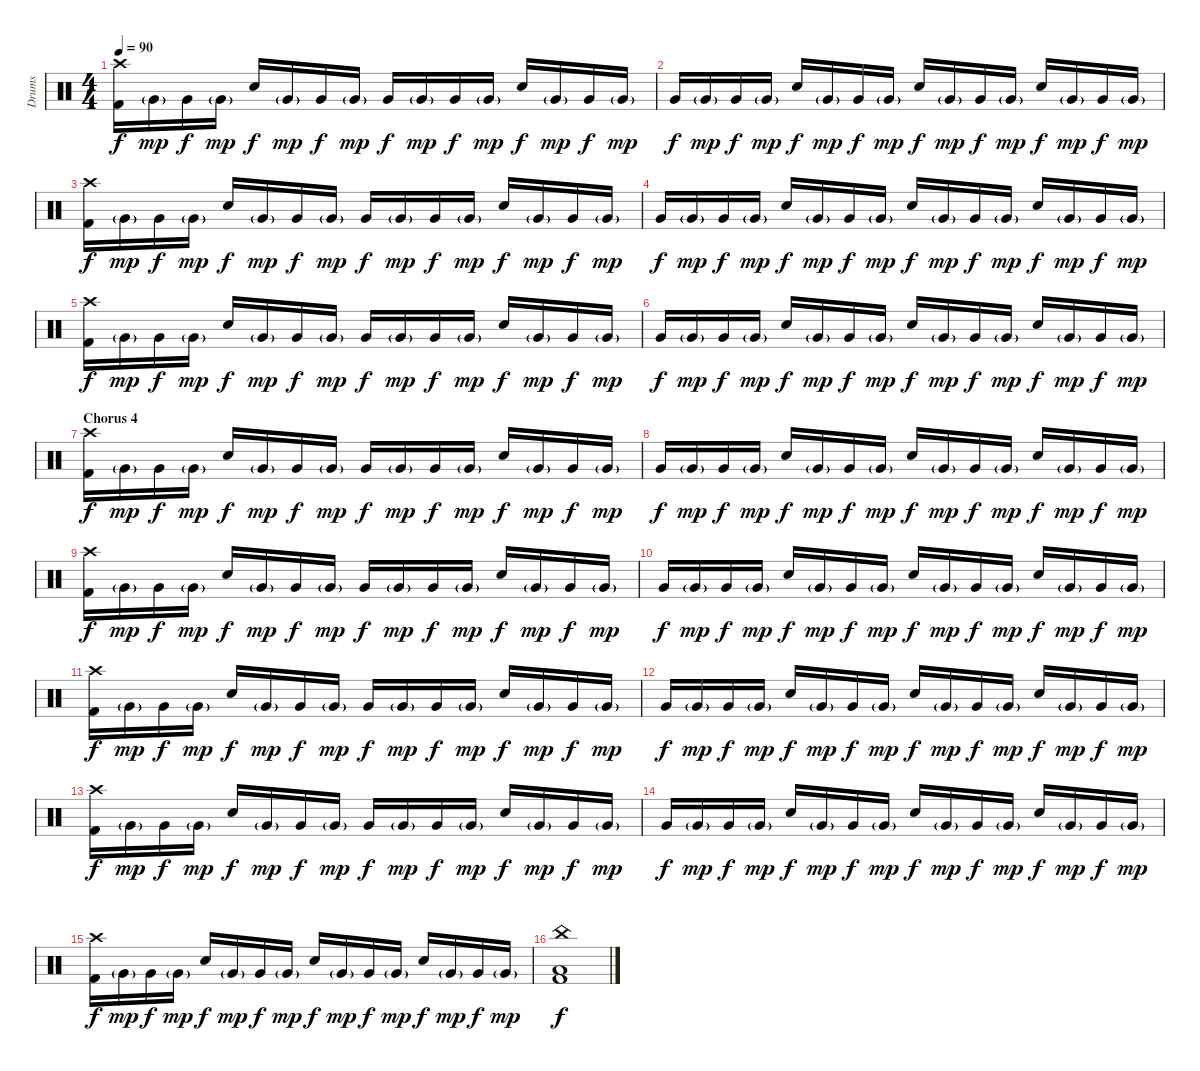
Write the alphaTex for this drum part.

\track ("Drums" "Drums") {instrument percussion}
\staff {score}
\articulation defaults
\ts (4 4)
\tempo 90
\clef neutral
\ks c
("Crash high (hit)" "Kick (hit) 2").16{dy f} "Very Low Tom (hit)"{g}.16{dy mp} "Very Low Tom (hit)".16{dy f} "Very Low Tom (hit)"{g}.16{dy mp} "Snare (hit) 2".16{dy f} "Very Low Tom (hit)"{g}.16{dy mp} "Very Low Tom (hit)".16{dy f} "Very Low Tom (hit)"{g}.16{dy mp} "Very Low Tom (hit)".16{dy f} "Very Low Tom (hit)"{g}.16{dy mp} "Very Low Tom (hit)".16{dy f} "Very Low Tom (hit)"{g}.16{dy mp} "Snare (hit) 2".16{dy f} "Very Low Tom (hit)"{g}.16{dy mp} "Very Low Tom (hit)".16{dy f} "Very Low Tom (hit)"{g}.16{dy mp} |
"Very Low Tom (hit)".16{dy f} "Very Low Tom (hit)"{g}.16{dy mp} "Very Low Tom (hit)".16{dy f} "Very Low Tom (hit)"{g}.16{dy mp} "Snare (hit) 2".16{dy f} "Very Low Tom (hit)"{g}.16{dy mp} "Very Low Tom (hit)".16{dy f} "Very Low Tom (hit)"{g}.16{dy mp} "Snare (hit) 2".16{dy f} "Very Low Tom (hit)"{g}.16{dy mp} "Very Low Tom (hit)".16{dy f} "Very Low Tom (hit)"{g}.16{dy mp} "Snare (hit) 2".16{dy f} "Very Low Tom (hit)"{g}.16{dy mp} "Very Low Tom (hit)".16{dy f} "Very Low Tom (hit)"{g}.16{dy mp} |
("Crash high (hit)" "Kick (hit) 2").16{dy f} "Very Low Tom (hit)"{g}.16{dy mp} "Very Low Tom (hit)".16{dy f} "Very Low Tom (hit)"{g}.16{dy mp} "Snare (hit) 2".16{dy f} "Very Low Tom (hit)"{g}.16{dy mp} "Very Low Tom (hit)".16{dy f} "Very Low Tom (hit)"{g}.16{dy mp} "Very Low Tom (hit)".16{dy f} "Very Low Tom (hit)"{g}.16{dy mp} "Very Low Tom (hit)".16{dy f} "Very Low Tom (hit)"{g}.16{dy mp} "Snare (hit) 2".16{dy f} "Very Low Tom (hit)"{g}.16{dy mp} "Very Low Tom (hit)".16{dy f} "Very Low Tom (hit)"{g}.16{dy mp} |
"Very Low Tom (hit)".16{dy f} "Very Low Tom (hit)"{g}.16{dy mp} "Very Low Tom (hit)".16{dy f} "Very Low Tom (hit)"{g}.16{dy mp} "Snare (hit) 2".16{dy f} "Very Low Tom (hit)"{g}.16{dy mp} "Very Low Tom (hit)".16{dy f} "Very Low Tom (hit)"{g}.16{dy mp} "Snare (hit) 2".16{dy f} "Very Low Tom (hit)"{g}.16{dy mp} "Very Low Tom (hit)".16{dy f} "Very Low Tom (hit)"{g}.16{dy mp} "Snare (hit) 2".16{dy f} "Very Low Tom (hit)"{g}.16{dy mp} "Very Low Tom (hit)".16{dy f} "Very Low Tom (hit)"{g}.16{dy mp} |
("Crash high (hit)" "Kick (hit) 2").16{dy f} "Very Low Tom (hit)"{g}.16{dy mp} "Very Low Tom (hit)".16{dy f} "Very Low Tom (hit)"{g}.16{dy mp} "Snare (hit) 2".16{dy f} "Very Low Tom (hit)"{g}.16{dy mp} "Very Low Tom (hit)".16{dy f} "Very Low Tom (hit)"{g}.16{dy mp} "Very Low Tom (hit)".16{dy f} "Very Low Tom (hit)"{g}.16{dy mp} "Very Low Tom (hit)".16{dy f} "Very Low Tom (hit)"{g}.16{dy mp} "Snare (hit) 2".16{dy f} "Very Low Tom (hit)"{g}.16{dy mp} "Very Low Tom (hit)".16{dy f} "Very Low Tom (hit)"{g}.16{dy mp} |
"Very Low Tom (hit)".16{dy f} "Very Low Tom (hit)"{g}.16{dy mp} "Very Low Tom (hit)".16{dy f} "Very Low Tom (hit)"{g}.16{dy mp} "Snare (hit) 2".16{dy f} "Very Low Tom (hit)"{g}.16{dy mp} "Very Low Tom (hit)".16{dy f} "Very Low Tom (hit)"{g}.16{dy mp} "Snare (hit) 2".16{dy f} "Very Low Tom (hit)"{g}.16{dy mp} "Very Low Tom (hit)".16{dy f} "Very Low Tom (hit)"{g}.16{dy mp} "Snare (hit) 2".16{dy f} "Very Low Tom (hit)"{g}.16{dy mp} "Very Low Tom (hit)".16{dy f} "Very Low Tom (hit)"{g}.16{dy mp} |
\section ("" "Chorus 4")
("Crash high (hit)" "Kick (hit) 2").16{dy f} "Very Low Tom (hit)"{g}.16{dy mp} "Very Low Tom (hit)".16{dy f} "Very Low Tom (hit)"{g}.16{dy mp} "Snare (hit) 2".16{dy f} "Very Low Tom (hit)"{g}.16{dy mp} "Very Low Tom (hit)".16{dy f} "Very Low Tom (hit)"{g}.16{dy mp} "Very Low Tom (hit)".16{dy f} "Very Low Tom (hit)"{g}.16{dy mp} "Very Low Tom (hit)".16{dy f} "Very Low Tom (hit)"{g}.16{dy mp} "Snare (hit) 2".16{dy f} "Very Low Tom (hit)"{g}.16{dy mp} "Very Low Tom (hit)".16{dy f} "Very Low Tom (hit)"{g}.16{dy mp} |
"Very Low Tom (hit)".16{dy f} "Very Low Tom (hit)"{g}.16{dy mp} "Very Low Tom (hit)".16{dy f} "Very Low Tom (hit)"{g}.16{dy mp} "Snare (hit) 2".16{dy f} "Very Low Tom (hit)"{g}.16{dy mp} "Very Low Tom (hit)".16{dy f} "Very Low Tom (hit)"{g}.16{dy mp} "Snare (hit) 2".16{dy f} "Very Low Tom (hit)"{g}.16{dy mp} "Very Low Tom (hit)".16{dy f} "Very Low Tom (hit)"{g}.16{dy mp} "Snare (hit) 2".16{dy f} "Very Low Tom (hit)"{g}.16{dy mp} "Very Low Tom (hit)".16{dy f} "Very Low Tom (hit)"{g}.16{dy mp} |
("Crash high (hit)" "Kick (hit) 2").16{dy f} "Very Low Tom (hit)"{g}.16{dy mp} "Very Low Tom (hit)".16{dy f} "Very Low Tom (hit)"{g}.16{dy mp} "Snare (hit) 2".16{dy f} "Very Low Tom (hit)"{g}.16{dy mp} "Very Low Tom (hit)".16{dy f} "Very Low Tom (hit)"{g}.16{dy mp} "Very Low Tom (hit)".16{dy f} "Very Low Tom (hit)"{g}.16{dy mp} "Very Low Tom (hit)".16{dy f} "Very Low Tom (hit)"{g}.16{dy mp} "Snare (hit) 2".16{dy f} "Very Low Tom (hit)"{g}.16{dy mp} "Very Low Tom (hit)".16{dy f} "Very Low Tom (hit)"{g}.16{dy mp} |
"Very Low Tom (hit)".16{dy f} "Very Low Tom (hit)"{g}.16{dy mp} "Very Low Tom (hit)".16{dy f} "Very Low Tom (hit)"{g}.16{dy mp} "Snare (hit) 2".16{dy f} "Very Low Tom (hit)"{g}.16{dy mp} "Very Low Tom (hit)".16{dy f} "Very Low Tom (hit)"{g}.16{dy mp} "Snare (hit) 2".16{dy f} "Very Low Tom (hit)"{g}.16{dy mp} "Very Low Tom (hit)".16{dy f} "Very Low Tom (hit)"{g}.16{dy mp} "Snare (hit) 2".16{dy f} "Very Low Tom (hit)"{g}.16{dy mp} "Very Low Tom (hit)".16{dy f} "Very Low Tom (hit)"{g}.16{dy mp} |
("Crash high (hit)" "Kick (hit) 2").16{dy f} "Very Low Tom (hit)"{g}.16{dy mp} "Very Low Tom (hit)".16{dy f} "Very Low Tom (hit)"{g}.16{dy mp} "Snare (hit) 2".16{dy f} "Very Low Tom (hit)"{g}.16{dy mp} "Very Low Tom (hit)".16{dy f} "Very Low Tom (hit)"{g}.16{dy mp} "Very Low Tom (hit)".16{dy f} "Very Low Tom (hit)"{g}.16{dy mp} "Very Low Tom (hit)".16{dy f} "Very Low Tom (hit)"{g}.16{dy mp} "Snare (hit) 2".16{dy f} "Very Low Tom (hit)"{g}.16{dy mp} "Very Low Tom (hit)".16{dy f} "Very Low Tom (hit)"{g}.16{dy mp} |
"Very Low Tom (hit)".16{dy f} "Very Low Tom (hit)"{g}.16{dy mp} "Very Low Tom (hit)".16{dy f} "Very Low Tom (hit)"{g}.16{dy mp} "Snare (hit) 2".16{dy f} "Very Low Tom (hit)"{g}.16{dy mp} "Very Low Tom (hit)".16{dy f} "Very Low Tom (hit)"{g}.16{dy mp} "Snare (hit) 2".16{dy f} "Very Low Tom (hit)"{g}.16{dy mp} "Very Low Tom (hit)".16{dy f} "Very Low Tom (hit)"{g}.16{dy mp} "Snare (hit) 2".16{dy f} "Very Low Tom (hit)"{g}.16{dy mp} "Very Low Tom (hit)".16{dy f} "Very Low Tom (hit)"{g}.16{dy mp} |
("Crash high (hit)" "Kick (hit) 2").16{dy f} "Very Low Tom (hit)"{g}.16{dy mp} "Very Low Tom (hit)".16{dy f} "Very Low Tom (hit)"{g}.16{dy mp} "Snare (hit) 2".16{dy f} "Very Low Tom (hit)"{g}.16{dy mp} "Very Low Tom (hit)".16{dy f} "Very Low Tom (hit)"{g}.16{dy mp} "Very Low Tom (hit)".16{dy f} "Very Low Tom (hit)"{g}.16{dy mp} "Very Low Tom (hit)".16{dy f} "Very Low Tom (hit)"{g}.16{dy mp} "Snare (hit) 2".16{dy f} "Very Low Tom (hit)"{g}.16{dy mp} "Very Low Tom (hit)".16{dy f} "Very Low Tom (hit)"{g}.16{dy mp} |
"Very Low Tom (hit)".16{dy f} "Very Low Tom (hit)"{g}.16{dy mp} "Very Low Tom (hit)".16{dy f} "Very Low Tom (hit)"{g}.16{dy mp} "Snare (hit) 2".16{dy f} "Very Low Tom (hit)"{g}.16{dy mp} "Very Low Tom (hit)".16{dy f} "Very Low Tom (hit)"{g}.16{dy mp} "Snare (hit) 2".16{dy f} "Very Low Tom (hit)"{g}.16{dy mp} "Very Low Tom (hit)".16{dy f} "Very Low Tom (hit)"{g}.16{dy mp} "Snare (hit) 2".16{dy f} "Very Low Tom (hit)"{g}.16{dy mp} "Very Low Tom (hit)".16{dy f} "Very Low Tom (hit)"{g}.16{dy mp} |
("Crash high (hit)" "Kick (hit) 2").16{dy f} "Very Low Tom (hit)"{g}.16{dy mp} "Very Low Tom (hit)".16{dy f} "Very Low Tom (hit)"{g}.16{dy mp} "Snare (hit) 2".16{dy f} "Very Low Tom (hit)"{g}.16{dy mp} "Very Low Tom (hit)".16{dy f} "Very Low Tom (hit)"{g}.16{dy mp} "Snare (hit) 2".16{dy f} "Very Low Tom (hit)"{g}.16{dy mp} "Very Low Tom (hit)".16{dy f} "Very Low Tom (hit)"{g}.16{dy mp} "Snare (hit) 2".16{dy f} "Very Low Tom (hit)"{g}.16{dy mp} "Very Low Tom (hit)".16{dy f} "Very Low Tom (hit)"{g}.16{dy mp} |
("China (hit)" "Low Floor Tom (hit)" "Kick (hit) 2").1{dy f}
